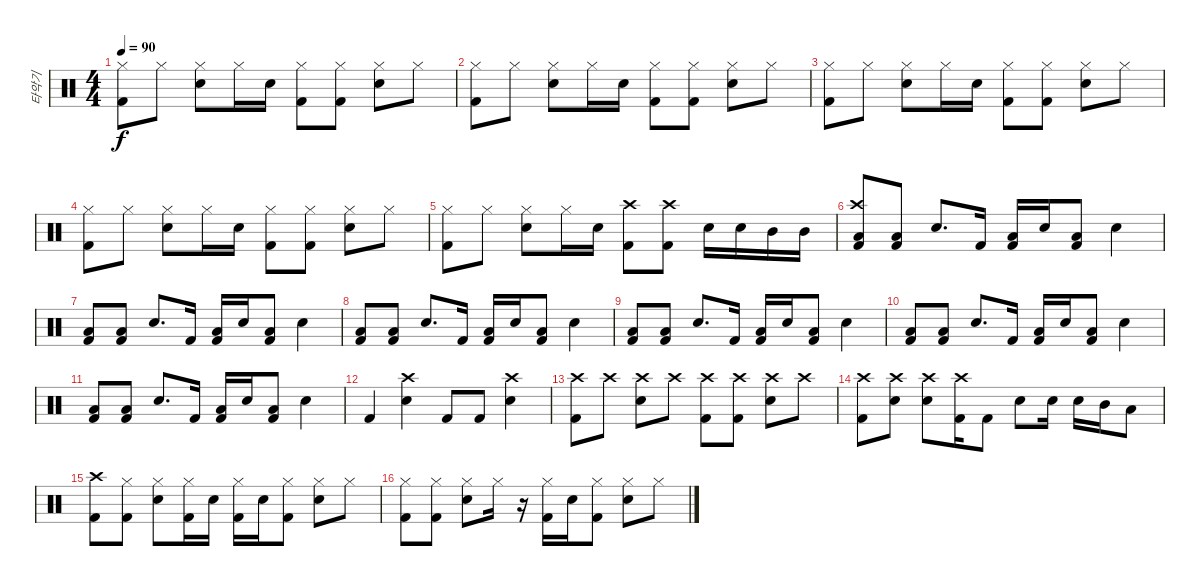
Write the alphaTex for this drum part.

\track ("타악기" "타악기") {instrument percussion}
\staff {score}
\articulation defaults
\ts (4 4)
\tempo 90
\clef neutral
\ks c
("Hi-Hat (closed)" "Kick (hit) 2").8{dy f} "Hi-Hat (closed)".8 ("Hi-Hat (closed)" "Electric Snare (hit)").8 "Hi-Hat (closed)".16 "Electric Snare (hit)".16 ("Hi-Hat (closed)" "Kick (hit) 2").8 ("Hi-Hat (closed)" "Kick (hit) 2").8 ("Hi-Hat (closed)" "Electric Snare (hit)").8 "Hi-Hat (closed)".8 |
("Hi-Hat (closed)" "Kick (hit) 2").8 "Hi-Hat (closed)".8 ("Hi-Hat (closed)" "Electric Snare (hit)").8 "Hi-Hat (closed)".16 "Electric Snare (hit)".16 ("Hi-Hat (closed)" "Kick (hit) 2").8 ("Hi-Hat (closed)" "Kick (hit) 2").8 ("Hi-Hat (closed)" "Electric Snare (hit)").8 "Hi-Hat (closed)".8 |
("Hi-Hat (closed)" "Kick (hit) 2").8 "Hi-Hat (closed)".8 ("Hi-Hat (closed)" "Electric Snare (hit)").8 "Hi-Hat (closed)".16 "Electric Snare (hit)".16 ("Hi-Hat (closed)" "Kick (hit) 2").8 ("Hi-Hat (closed)" "Kick (hit) 2").8 ("Hi-Hat (closed)" "Electric Snare (hit)").8 "Hi-Hat (closed)".8 |
("Hi-Hat (closed)" "Kick (hit) 2").8 "Hi-Hat (closed)".8 ("Hi-Hat (closed)" "Electric Snare (hit)").8 "Hi-Hat (closed)".16 "Electric Snare (hit)".16 ("Hi-Hat (closed)" "Kick (hit) 2").8 ("Hi-Hat (closed)" "Kick (hit) 2").8 ("Hi-Hat (closed)" "Electric Snare (hit)").8 "Hi-Hat (closed)".8 |
("Hi-Hat (closed)" "Kick (hit) 2").8 "Hi-Hat (closed)".8 ("Hi-Hat (closed)" "Electric Snare (hit)").8 "Hi-Hat (closed)".16 "Electric Snare (hit)".16 ("Crash high (hit)" "Kick (hit) 2").8 ("Crash high (hit)" "Kick (hit) 2").8 "Electric Snare (hit)".16 "Electric Snare (hit)".16 "Mid Tom (hit)".16 "Mid Tom (hit)".16 |
("Crash high (hit)" "Kick (hit) 2" "Low Floor Tom (hit)").8 ("Kick (hit) 2" "Low Floor Tom (hit)").8 "Electric Snare (hit)".8{d} "Kick (hit) 2".16 ("Kick (hit) 2" "Low Floor Tom (hit)").16 "Electric Snare (hit)".16 ("Kick (hit) 2" "Low Floor Tom (hit)").8 "Electric Snare (hit)".4 |
("Kick (hit) 2" "Low Floor Tom (hit)").8 ("Kick (hit) 2" "Low Floor Tom (hit)").8 "Electric Snare (hit)".8{d} "Kick (hit) 2".16 ("Kick (hit) 2" "Low Floor Tom (hit)").16 "Electric Snare (hit)".16 ("Kick (hit) 2" "Low Floor Tom (hit)").8 "Electric Snare (hit)".4 |
("Kick (hit) 2" "Low Floor Tom (hit)").8 ("Kick (hit) 2" "Low Floor Tom (hit)").8 "Electric Snare (hit)".8{d} "Kick (hit) 2".16 ("Kick (hit) 2" "Low Floor Tom (hit)").16 "Electric Snare (hit)".16 ("Kick (hit) 2" "Low Floor Tom (hit)").8 "Electric Snare (hit)".4 |
("Kick (hit) 2" "Low Floor Tom (hit)").8 ("Kick (hit) 2" "Low Floor Tom (hit)").8 "Electric Snare (hit)".8{d} "Kick (hit) 2".16 ("Kick (hit) 2" "Low Floor Tom (hit)").16 "Electric Snare (hit)".16 ("Kick (hit) 2" "Low Floor Tom (hit)").8 "Electric Snare (hit)".4 |
("Kick (hit) 2" "Low Floor Tom (hit)").8 ("Kick (hit) 2" "Low Floor Tom (hit)").8 "Electric Snare (hit)".8{d} "Kick (hit) 2".16 ("Kick (hit) 2" "Low Floor Tom (hit)").16 "Electric Snare (hit)".16 ("Kick (hit) 2" "Low Floor Tom (hit)").8 "Electric Snare (hit)".4 |
("Kick (hit) 2" "Low Floor Tom (hit)").8 ("Kick (hit) 2" "Low Floor Tom (hit)").8 "Electric Snare (hit)".8{d} "Kick (hit) 2".16 ("Kick (hit) 2" "Low Floor Tom (hit)").16 "Electric Snare (hit)".16 ("Kick (hit) 2" "Low Floor Tom (hit)").8 "Electric Snare (hit)".4 |
"Kick (hit) 2".4 ("Crash high (hit)" "Electric Snare (hit)").4 "Kick (hit) 2".8 "Kick (hit) 2".8 ("Crash high (hit)" "Electric Snare (hit)").4 |
("Crash high (hit)" "Kick (hit) 2").8 "Crash high (hit)".8 ("Crash high (hit)" "Electric Snare (hit)").8 "Crash high (hit)".8 ("Crash high (hit)" "Kick (hit) 2").8 ("Crash high (hit)" "Kick (hit) 2").8 ("Crash high (hit)" "Electric Snare (hit)").8 "Crash high (hit)".8 |
("Crash high (hit)" "Kick (hit) 2").8 ("Crash high (hit)" "Electric Snare (hit)").8 ("Crash high (hit)" "Electric Snare (hit)").8 ("Crash high (hit)" "Kick (hit) 2").16 "Kick (hit) 2".8 "Electric Snare (hit)".8 "Electric Snare (hit)".16 "Electric Snare (hit)".16 "Mid Tom (hit)".16 "Low Tom (hit)".8 |
("Crash high (hit)" "Kick (hit) 2").8 ("Hi-Hat (closed)" "Kick (hit) 2").8 ("Hi-Hat (closed)" "Electric Snare (hit)").8 ("Hi-Hat (closed)" "Kick (hit) 2").16 "Electric Snare (hit)".16 ("Hi-Hat (closed)" "Kick (hit) 2").16 "Electric Snare (hit)".16 ("Hi-Hat (closed)" "Kick (hit) 2").8 ("Hi-Hat (closed)" "Electric Snare (hit)").8 "Hi-Hat (closed)".8 |
("Hi-Hat (closed)" "Kick (hit) 2").8 ("Hi-Hat (closed)" "Kick (hit) 2").8 ("Hi-Hat (closed)" "Electric Snare (hit)").8 "Hi-Hat (closed)".16 r.16 ("Hi-Hat (closed)" "Kick (hit) 2").16 "Electric Snare (hit)".16 ("Hi-Hat (closed)" "Kick (hit) 2").8 ("Hi-Hat (closed)" "Electric Snare (hit)").8 "Hi-Hat (closed)".8
